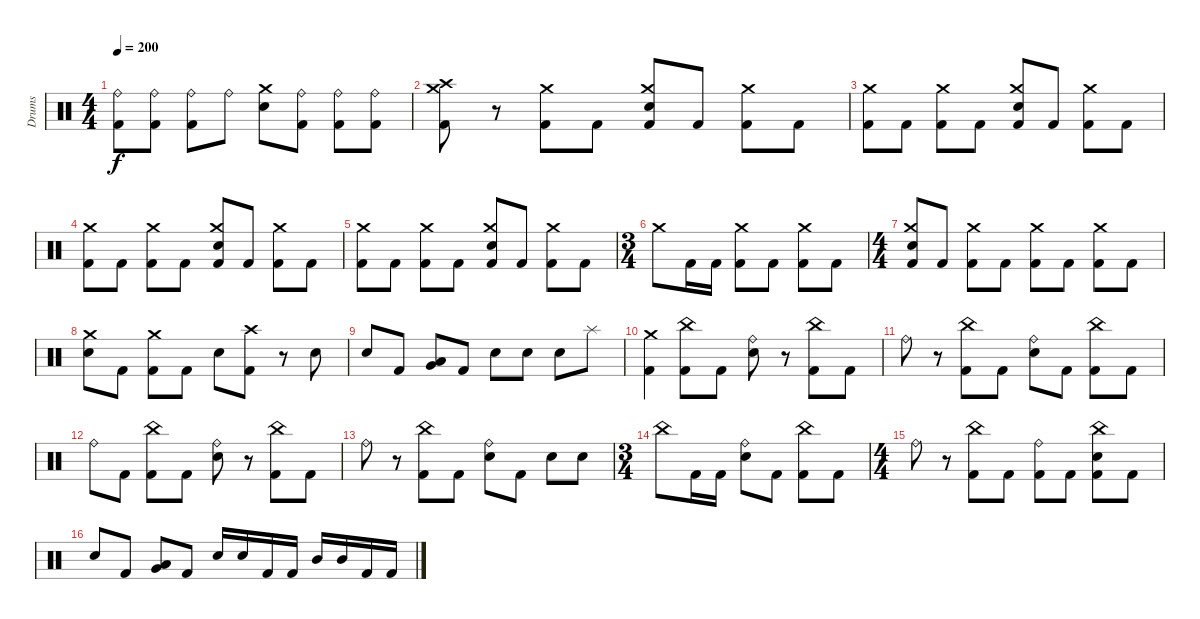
\track ("Drums" "Drums") {instrument percussion}
\staff {score}
\articulation defaults
\ts (4 4)
\tempo 200
\clef neutral
\ks c
("Ride (bell)" "Kick (hit) 2").8{dy f} ("Ride (bell)" "Kick (hit) 2").8 ("Ride (bell)" "Kick (hit) 2").8 "Ride (bell)".8 ("Crash medium (hit)" "Snare (hit) 2").8 ("Ride (bell)" "Kick (hit) 2").8 ("Ride (bell)" "Kick (hit) 2").8 ("Ride (bell)" "Kick (hit) 2").8 |
("Crash high (hit)" "Crash medium (hit)" "Kick (hit) 2").8 r.8 ("Crash medium (hit)" "Kick (hit) 2").8 "Kick (hit) 2".8 ("Crash medium (hit)" "Snare (hit) 2" "Kick (hit) 2").8 "Kick (hit) 2".8 ("Crash medium (hit)" "Kick (hit) 2").8 "Kick (hit) 2".8 |
("Crash medium (hit)" "Kick (hit) 2").8 "Kick (hit) 2".8 ("Crash medium (hit)" "Kick (hit) 2").8 "Kick (hit) 2".8 ("Crash medium (hit)" "Snare (hit) 2" "Kick (hit) 2").8 "Kick (hit) 2".8 ("Crash medium (hit)" "Kick (hit) 2").8 "Kick (hit) 2".8 |
("Crash medium (hit)" "Kick (hit) 2").8 "Kick (hit) 2".8 ("Crash medium (hit)" "Kick (hit) 2").8 "Kick (hit) 2".8 ("Crash medium (hit)" "Snare (hit) 2" "Kick (hit) 2").8 "Kick (hit) 2".8 ("Crash medium (hit)" "Kick (hit) 2").8 "Kick (hit) 2".8 |
("Crash medium (hit)" "Kick (hit) 2").8 "Kick (hit) 2".8 ("Crash medium (hit)" "Kick (hit) 2").8 "Kick (hit) 2".8 ("Crash medium (hit)" "Snare (hit) 2" "Kick (hit) 2").8 "Kick (hit) 2".8 ("Crash medium (hit)" "Kick (hit) 2").8 "Kick (hit) 2".8 |
\ts (3 4)
"Crash medium (hit)".8 "Kick (hit) 2".16 "Kick (hit) 2".16 ("Crash medium (hit)" "Kick (hit) 2").8 "Kick (hit) 2".8 ("Crash medium (hit)" "Kick (hit) 2").8 "Kick (hit) 2".8 |
\ts (4 4)
("Crash medium (hit)" "Snare (hit) 2" "Kick (hit) 2").8 "Kick (hit) 2".8 ("Crash medium (hit)" "Kick (hit) 2").8 "Kick (hit) 2".8 ("Crash medium (hit)" "Kick (hit) 2").8 "Kick (hit) 2".8 ("Crash medium (hit)" "Kick (hit) 2").8 "Kick (hit) 2".8 |
("Crash medium (hit)" "Snare (hit) 2").8 "Kick (hit) 2".8 ("Crash medium (hit)" "Kick (hit) 2").8 "Kick (hit) 2".8 "Snare (hit) 2".8 ("Crash high (hit)" "Kick (hit) 2").8 r.8 "Snare (hit) 2".8 |
"Snare (hit) 2".8 "Kick (hit) 2".8 ("Low Tom (hit)" "Very Low Tom (hit)").8 "Kick (hit) 2".8 "Snare (hit) 2".8 "Snare (hit) 2".8 "Snare (hit) 2".8 "Splash (hit)".8 |
("Crash medium (hit)" "Kick (hit) 2").4 ("China (hit)" "Kick (hit) 2").8 "Kick (hit) 2".8 ("Ride (bell)" "Snare (hit) 2").8 r.8 ("China (hit)" "Kick (hit) 2").8 "Kick (hit) 2".8 |
"Ride (bell)".8 r.8 ("China (hit)" "Kick (hit) 2").8 "Kick (hit) 2".8 ("Ride (bell)" "Snare (hit) 2").8 "Kick (hit) 2".8 ("China (hit)" "Kick (hit) 2").8 "Kick (hit) 2".8 |
"Ride (bell)".8 "Kick (hit) 2".8 ("China (hit)" "Kick (hit) 2").8 "Kick (hit) 2".8 ("Ride (bell)" "Snare (hit) 2").8 r.8 ("China (hit)" "Kick (hit) 2").8 "Kick (hit) 2".8 |
"Ride (bell)".8 r.8 ("China (hit)" "Kick (hit) 2").8 "Kick (hit) 2".8 ("Ride (bell)" "Snare (hit) 2").8 "Kick (hit) 2".8 "Snare (hit) 2".8 "Snare (hit) 2".8 |
\ts (3 4)
"China (hit)".8 "Kick (hit) 2".16 "Kick (hit) 2".16 ("Ride (bell)" "Snare (hit) 2").8 "Kick (hit) 2".8 ("China (hit)" "Kick (hit) 2").8 "Kick (hit) 2".8 |
\ts (4 4)
"Ride (bell)".8 r.8 ("China (hit)" "Kick (hit) 2").8 "Kick (hit) 2".8 ("Ride (bell)" "Kick (hit) 2").8 "Kick (hit) 2".8 ("China (hit)" "Snare (hit) 2" "Kick (hit) 2").8 "Kick (hit) 2".8 |
"Snare (hit) 2".8 "Kick (hit) 2".8 ("Low Tom (hit)" "Very Low Tom (hit)").8 "Kick (hit) 2".8 "Snare (hit) 2".16 "Snare (hit) 2".16 "Kick (hit) 2".16 "Kick (hit) 2".16 "Mid Tom (hit)".16 "Mid Tom (hit)".16 "Kick (hit) 2".16 "Kick (hit) 2".16
